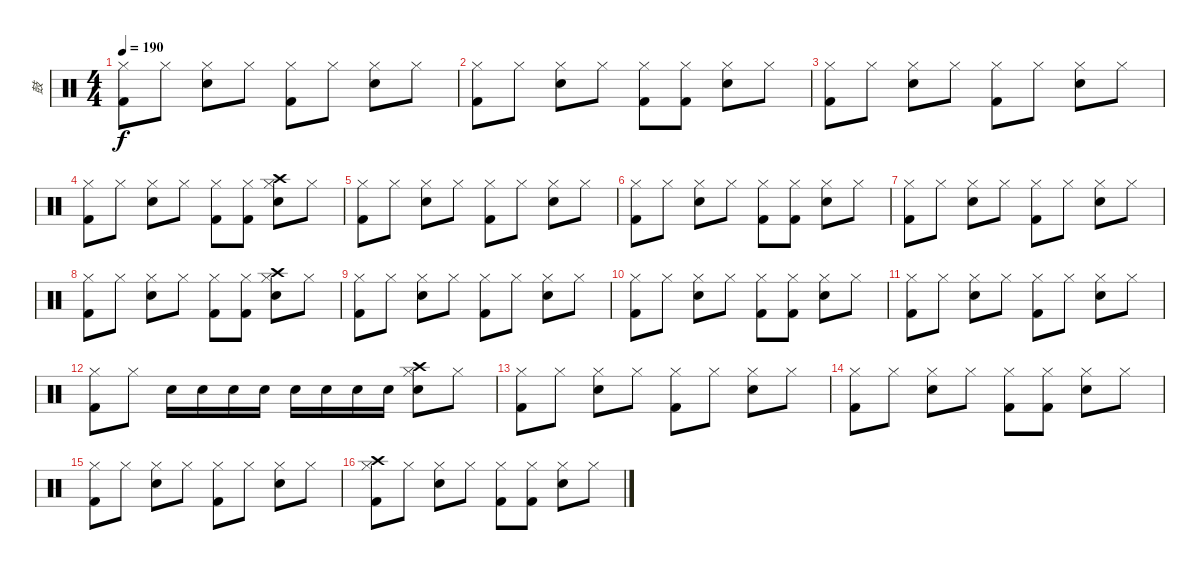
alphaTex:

\track ("鼓" "鼓") {instrument percussion}
\staff {score}
\articulation defaults
\ts (4 4)
\tempo 190
\clef neutral
\ks c
("Hi-Hat (closed)" "Kick (hit) 2").8{dy f} "Hi-Hat (closed)".8 ("Hi-Hat (closed)" "Snare (hit) 2").8 "Hi-Hat (closed)".8 ("Hi-Hat (closed)" "Kick (hit) 2").8 "Hi-Hat (closed)".8 ("Hi-Hat (closed)" "Snare (hit) 2").8 "Hi-Hat (closed)".8 |
("Hi-Hat (closed)" "Kick (hit) 2").8 "Hi-Hat (closed)".8 ("Hi-Hat (closed)" "Snare (hit) 2").8 "Hi-Hat (closed)".8 ("Hi-Hat (closed)" "Kick (hit) 2").8 ("Hi-Hat (closed)" "Kick (hit) 2").8 ("Hi-Hat (closed)" "Snare (hit) 2").8 "Hi-Hat (closed)".8 |
("Hi-Hat (closed)" "Kick (hit) 2").8 "Hi-Hat (closed)".8 ("Hi-Hat (closed)" "Snare (hit) 2").8 "Hi-Hat (closed)".8 ("Hi-Hat (closed)" "Kick (hit) 2").8 "Hi-Hat (closed)".8 ("Hi-Hat (closed)" "Snare (hit) 2").8 "Hi-Hat (closed)".8 |
("Hi-Hat (closed)" "Kick (hit) 2").8 "Hi-Hat (closed)".8 ("Hi-Hat (closed)" "Snare (hit) 2").8 "Hi-Hat (closed)".8 ("Hi-Hat (closed)" "Kick (hit) 2").8 ("Hi-Hat (closed)" "Kick (hit) 2").8 ("Crash high (hit)" "Hi-Hat (closed)" "Snare (hit) 2").8 "Hi-Hat (closed)".8 |
("Hi-Hat (closed)" "Kick (hit) 2").8 "Hi-Hat (closed)".8 ("Hi-Hat (closed)" "Snare (hit) 2").8 "Hi-Hat (closed)".8 ("Hi-Hat (closed)" "Kick (hit) 2").8 "Hi-Hat (closed)".8 ("Hi-Hat (closed)" "Snare (hit) 2").8 "Hi-Hat (closed)".8 |
("Hi-Hat (closed)" "Kick (hit) 2").8 "Hi-Hat (closed)".8 ("Hi-Hat (closed)" "Snare (hit) 2").8 "Hi-Hat (closed)".8 ("Hi-Hat (closed)" "Kick (hit) 2").8 ("Hi-Hat (closed)" "Kick (hit) 2").8 ("Hi-Hat (closed)" "Snare (hit) 2").8 "Hi-Hat (closed)".8 |
("Hi-Hat (closed)" "Kick (hit) 2").8 "Hi-Hat (closed)".8 ("Hi-Hat (closed)" "Snare (hit) 2").8 "Hi-Hat (closed)".8 ("Hi-Hat (closed)" "Kick (hit) 2").8 "Hi-Hat (closed)".8 ("Hi-Hat (closed)" "Snare (hit) 2").8 "Hi-Hat (closed)".8 |
("Hi-Hat (closed)" "Kick (hit) 2").8 "Hi-Hat (closed)".8 ("Hi-Hat (closed)" "Snare (hit) 2").8 "Hi-Hat (closed)".8 ("Hi-Hat (closed)" "Kick (hit) 2").8 ("Hi-Hat (closed)" "Kick (hit) 2").8 ("Crash high (hit)" "Hi-Hat (closed)" "Snare (hit) 2").8 "Hi-Hat (closed)".8 |
("Hi-Hat (closed)" "Kick (hit) 2").8 "Hi-Hat (closed)".8 ("Hi-Hat (closed)" "Snare (hit) 2").8 "Hi-Hat (closed)".8 ("Hi-Hat (closed)" "Kick (hit) 2").8 "Hi-Hat (closed)".8 ("Hi-Hat (closed)" "Snare (hit) 2").8 "Hi-Hat (closed)".8 |
("Hi-Hat (closed)" "Kick (hit) 2").8 "Hi-Hat (closed)".8 ("Hi-Hat (closed)" "Snare (hit) 2").8 "Hi-Hat (closed)".8 ("Hi-Hat (closed)" "Kick (hit) 2").8 ("Hi-Hat (closed)" "Kick (hit) 2").8 ("Hi-Hat (closed)" "Snare (hit) 2").8 "Hi-Hat (closed)".8 |
("Hi-Hat (closed)" "Kick (hit) 2").8 "Hi-Hat (closed)".8 ("Hi-Hat (closed)" "Snare (hit) 2").8 "Hi-Hat (closed)".8 ("Hi-Hat (closed)" "Kick (hit) 2").8 "Hi-Hat (closed)".8 ("Hi-Hat (closed)" "Snare (hit) 2").8 "Hi-Hat (closed)".8 |
("Hi-Hat (closed)" "Kick (hit) 2").8 "Hi-Hat (closed)".8 "Snare (hit) 2".16 "Snare (hit) 2".16 "Snare (hit) 2".16 "Snare (hit) 2".16 "Snare (hit) 2".16 "Snare (hit) 2".16 "Snare (hit) 2".16 "Snare (hit) 2".16 ("Crash high (hit)" "Hi-Hat (closed)" "Snare (hit) 2").8 "Hi-Hat (closed)".8 |
("Hi-Hat (closed)" "Kick (hit) 2").8 "Hi-Hat (closed)".8 ("Hi-Hat (closed)" "Snare (hit) 2").8 "Hi-Hat (closed)".8 ("Hi-Hat (closed)" "Kick (hit) 2").8 "Hi-Hat (closed)".8 ("Hi-Hat (closed)" "Snare (hit) 2").8 "Hi-Hat (closed)".8 |
("Hi-Hat (closed)" "Kick (hit) 2").8 "Hi-Hat (closed)".8 ("Hi-Hat (closed)" "Snare (hit) 2").8 "Hi-Hat (closed)".8 ("Hi-Hat (closed)" "Kick (hit) 2").8 ("Hi-Hat (closed)" "Kick (hit) 2").8 ("Hi-Hat (closed)" "Snare (hit) 2").8 "Hi-Hat (closed)".8 |
("Hi-Hat (closed)" "Kick (hit) 2").8 "Hi-Hat (closed)".8 ("Hi-Hat (closed)" "Snare (hit) 2").8 "Hi-Hat (closed)".8 ("Hi-Hat (closed)" "Kick (hit) 2").8 "Hi-Hat (closed)".8 ("Hi-Hat (closed)" "Snare (hit) 2").8 "Hi-Hat (closed)".8 |
("Crash high (hit)" "Hi-Hat (closed)" "Kick (hit) 2").8 "Hi-Hat (closed)".8 ("Hi-Hat (closed)" "Snare (hit) 2").8 "Hi-Hat (closed)".8 ("Hi-Hat (closed)" "Kick (hit) 2").8 ("Hi-Hat (closed)" "Kick (hit) 2").8 ("Hi-Hat (closed)" "Snare (hit) 2").8 "Hi-Hat (closed)".8
